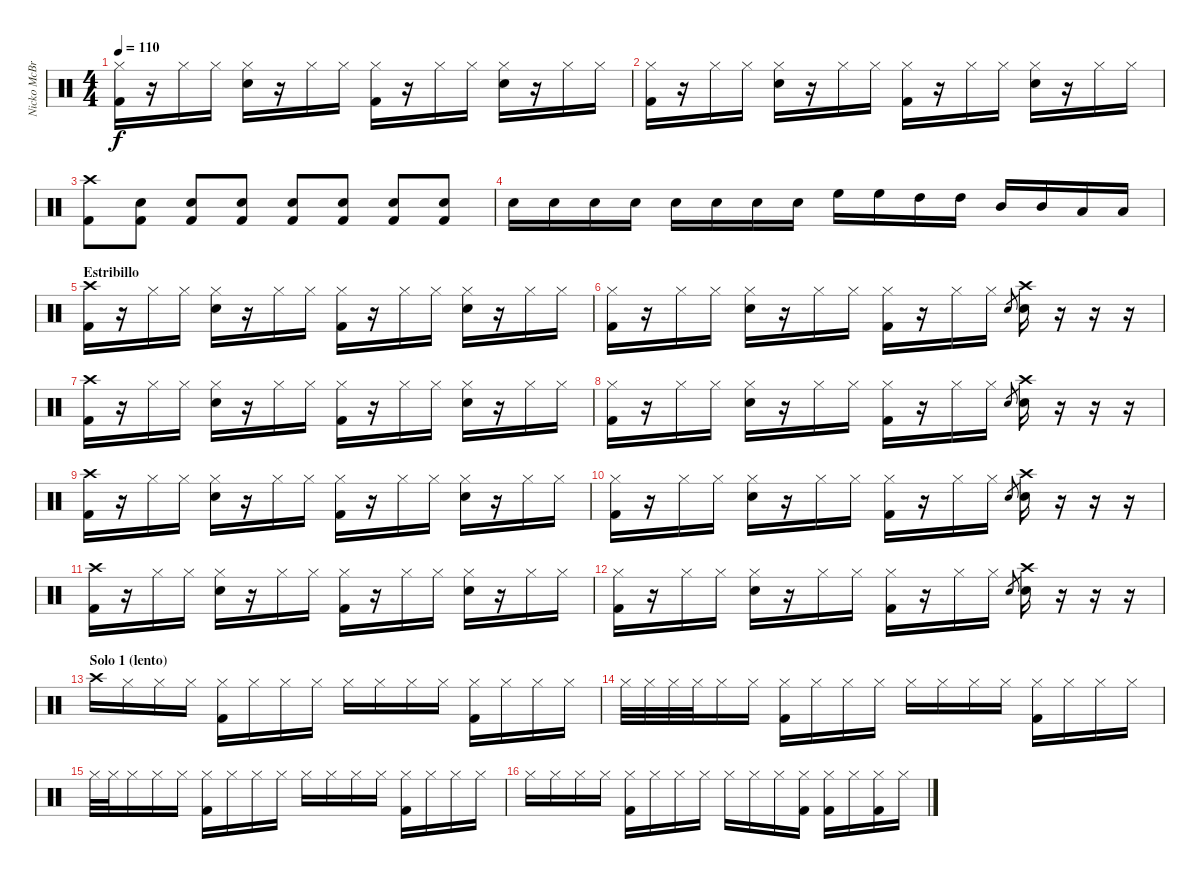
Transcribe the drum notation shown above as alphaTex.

\track ("Nicko McBrain" "Nicko McBr") {instrument percussion}
\staff {score}
\articulation defaults
\ts (4 4)
\tempo 110
\clef neutral
\ks c
("Hi-Hat (closed)" "Kick (hit) 2").16{dy f} r.16 "Hi-Hat (closed)".16 "Hi-Hat (closed)".16 ("Hi-Hat (closed)" "Snare (hit) 2").16 r.16 "Hi-Hat (closed)".16 "Hi-Hat (closed)".16 ("Hi-Hat (closed)" "Kick (hit) 2").16 r.16 "Hi-Hat (closed)".16 "Hi-Hat (closed)".16 ("Hi-Hat (closed)" "Snare (hit) 2").16 r.16 "Hi-Hat (closed)".16 "Hi-Hat (closed)".16 |
("Hi-Hat (closed)" "Kick (hit) 2").16 r.16 "Hi-Hat (closed)".16 "Hi-Hat (closed)".16 ("Hi-Hat (closed)" "Snare (hit) 2").16 r.16 "Hi-Hat (closed)".16 "Hi-Hat (closed)".16 ("Hi-Hat (closed)" "Kick (hit) 2").16 r.16 "Hi-Hat (closed)".16 "Hi-Hat (closed)".16 ("Hi-Hat (closed)" "Snare (hit) 2").16 r.16 "Hi-Hat (closed)".16 "Hi-Hat (closed)".16 |
("Crash high (hit)" "Kick (hit) 2").8 ("Kick (hit) 2" "Snare (hit) 2").8 ("Kick (hit) 2" "Snare (hit) 2").8 ("Kick (hit) 2" "Snare (hit) 2").8 ("Kick (hit) 2" "Snare (hit) 2").8 ("Kick (hit) 2" "Snare (hit) 2").8 ("Kick (hit) 2" "Snare (hit) 2").8 ("Kick (hit) 2" "Snare (hit) 2").8 |
"Snare (hit) 2".16 "Snare (hit) 2".16 "Snare (hit) 2".16 "Snare (hit) 2".16 "Snare (hit) 2".16 "Snare (hit) 2".16 "Snare (hit) 2".16 "Snare (hit) 2".16 "High Floor Tom (hit)".16 "High Floor Tom (hit)".16 "High Tom (hit)".16 "High Tom (hit)".16 "Mid Tom (hit)".16 "Mid Tom (hit)".16 "Low Tom (hit)".16 "Low Tom (hit)".16 |
\section ("" "Estribillo")
("Crash high (hit)" "Kick (hit) 2").16 r.16 "Hi-Hat (closed)".16 "Hi-Hat (closed)".16 ("Hi-Hat (closed)" "Snare (hit) 2").16 r.16 "Hi-Hat (closed)".16 "Hi-Hat (closed)".16 ("Hi-Hat (closed)" "Kick (hit) 2").16 r.16 "Hi-Hat (closed)".16 "Hi-Hat (closed)".16 ("Hi-Hat (closed)" "Snare (hit) 2").16 r.16 "Hi-Hat (closed)".16 "Hi-Hat (closed)".16 |
("Hi-Hat (closed)" "Kick (hit) 2").16 r.16 "Hi-Hat (closed)".16 "Hi-Hat (closed)".16 ("Hi-Hat (closed)" "Snare (hit) 2").16 r.16 "Hi-Hat (closed)".16 "Hi-Hat (closed)".16 ("Hi-Hat (closed)" "Kick (hit) 2").16 r.16 "Hi-Hat (closed)".16 "Hi-Hat (closed)".16 "Snare (hit) 2".8{gr} ("Crash high (hit)" "Snare (hit) 2").16 r.16 r.16 r.16 |
("Crash high (hit)" "Kick (hit) 2").16 r.16 "Hi-Hat (closed)".16 "Hi-Hat (closed)".16 ("Hi-Hat (closed)" "Snare (hit) 2").16 r.16 "Hi-Hat (closed)".16 "Hi-Hat (closed)".16 ("Hi-Hat (closed)" "Kick (hit) 2").16 r.16 "Hi-Hat (closed)".16 "Hi-Hat (closed)".16 ("Hi-Hat (closed)" "Snare (hit) 2").16 r.16 "Hi-Hat (closed)".16 "Hi-Hat (closed)".16 |
("Hi-Hat (closed)" "Kick (hit) 2").16 r.16 "Hi-Hat (closed)".16 "Hi-Hat (closed)".16 ("Hi-Hat (closed)" "Snare (hit) 2").16 r.16 "Hi-Hat (closed)".16 "Hi-Hat (closed)".16 ("Hi-Hat (closed)" "Kick (hit) 2").16 r.16 "Hi-Hat (closed)".16 "Hi-Hat (closed)".16 "Snare (hit) 2".8{gr} ("Crash high (hit)" "Snare (hit) 2").16 r.16 r.16 r.16 |
("Crash high (hit)" "Kick (hit) 2").16 r.16 "Hi-Hat (closed)".16 "Hi-Hat (closed)".16 ("Hi-Hat (closed)" "Snare (hit) 2").16 r.16 "Hi-Hat (closed)".16 "Hi-Hat (closed)".16 ("Hi-Hat (closed)" "Kick (hit) 2").16 r.16 "Hi-Hat (closed)".16 "Hi-Hat (closed)".16 ("Hi-Hat (closed)" "Snare (hit) 2").16 r.16 "Hi-Hat (closed)".16 "Hi-Hat (closed)".16 |
("Hi-Hat (closed)" "Kick (hit) 2").16 r.16 "Hi-Hat (closed)".16 "Hi-Hat (closed)".16 ("Hi-Hat (closed)" "Snare (hit) 2").16 r.16 "Hi-Hat (closed)".16 "Hi-Hat (closed)".16 ("Hi-Hat (closed)" "Kick (hit) 2").16 r.16 "Hi-Hat (closed)".16 "Hi-Hat (closed)".16 "Snare (hit) 2".8{gr} ("Crash high (hit)" "Snare (hit) 2").16 r.16 r.16 r.16 |
("Crash high (hit)" "Kick (hit) 2").16 r.16 "Hi-Hat (closed)".16 "Hi-Hat (closed)".16 ("Hi-Hat (closed)" "Snare (hit) 2").16 r.16 "Hi-Hat (closed)".16 "Hi-Hat (closed)".16 ("Hi-Hat (closed)" "Kick (hit) 2").16 r.16 "Hi-Hat (closed)".16 "Hi-Hat (closed)".16 ("Hi-Hat (closed)" "Snare (hit) 2").16 r.16 "Hi-Hat (closed)".16 "Hi-Hat (closed)".16 |
("Hi-Hat (closed)" "Kick (hit) 2").16 r.16 "Hi-Hat (closed)".16 "Hi-Hat (closed)".16 ("Hi-Hat (closed)" "Snare (hit) 2").16 r.16 "Hi-Hat (closed)".16 "Hi-Hat (closed)".16 ("Hi-Hat (closed)" "Kick (hit) 2").16 r.16 "Hi-Hat (closed)".16 "Hi-Hat (closed)".16 "Snare (hit) 2".8{gr} ("Crash high (hit)" "Snare (hit) 2").16 r.16 r.16 r.16 |
\section ("" "Solo 1 (lento)")
"Crash high (hit)".16{volume 8} "Hi-Hat (closed)".16 "Hi-Hat (closed)".16 "Hi-Hat (closed)".16 ("Hi-Hat (closed)" "Kick (hit) 2").16 "Hi-Hat (closed)".16 "Hi-Hat (closed)".16 "Hi-Hat (closed)".16 "Hi-Hat (closed)".16 "Hi-Hat (closed)".16 "Hi-Hat (closed)".16 "Hi-Hat (closed)".16 ("Hi-Hat (closed)" "Kick (hit) 2").16 "Hi-Hat (closed)".16 "Hi-Hat (closed)".16 "Hi-Hat (closed)".16 |
"Hi-Hat (closed)".32 "Hi-Hat (closed)".32 "Hi-Hat (closed)".32 "Hi-Hat (closed)".32 "Hi-Hat (closed)".16 "Hi-Hat (closed)".16 ("Hi-Hat (closed)" "Kick (hit) 2").16 "Hi-Hat (closed)".16 "Hi-Hat (closed)".16 "Hi-Hat (closed)".16 "Hi-Hat (closed)".16 "Hi-Hat (closed)".16 "Hi-Hat (closed)".16 "Hi-Hat (closed)".16 ("Hi-Hat (closed)" "Kick (hit) 2").16 "Hi-Hat (closed)".16 "Hi-Hat (closed)".16 "Hi-Hat (closed)".16 |
"Hi-Hat (closed)".32 "Hi-Hat (closed)".32 "Hi-Hat (closed)".16 "Hi-Hat (closed)".16 "Hi-Hat (closed)".16 ("Hi-Hat (closed)" "Kick (hit) 2").16 "Hi-Hat (closed)".16 "Hi-Hat (closed)".16 "Hi-Hat (closed)".16 "Hi-Hat (closed)".16 "Hi-Hat (closed)".16 "Hi-Hat (closed)".16 "Hi-Hat (closed)".16 ("Hi-Hat (closed)" "Kick (hit) 2").16 "Hi-Hat (closed)".16 "Hi-Hat (closed)".16 "Hi-Hat (closed)".16 |
"Hi-Hat (closed)".16 "Hi-Hat (closed)".16 "Hi-Hat (closed)".16 "Hi-Hat (closed)".16 ("Hi-Hat (closed)" "Kick (hit) 2").16 "Hi-Hat (closed)".16 "Hi-Hat (closed)".16 "Hi-Hat (closed)".16 "Hi-Hat (closed)".16 "Hi-Hat (closed)".16 "Hi-Hat (closed)".16 ("Hi-Hat (closed)" "Kick (hit) 2").16 ("Hi-Hat (closed)" "Kick (hit) 2").16 "Hi-Hat (closed)".16 ("Hi-Hat (closed)" "Kick (hit) 2").16 "Hi-Hat (closed)".16
